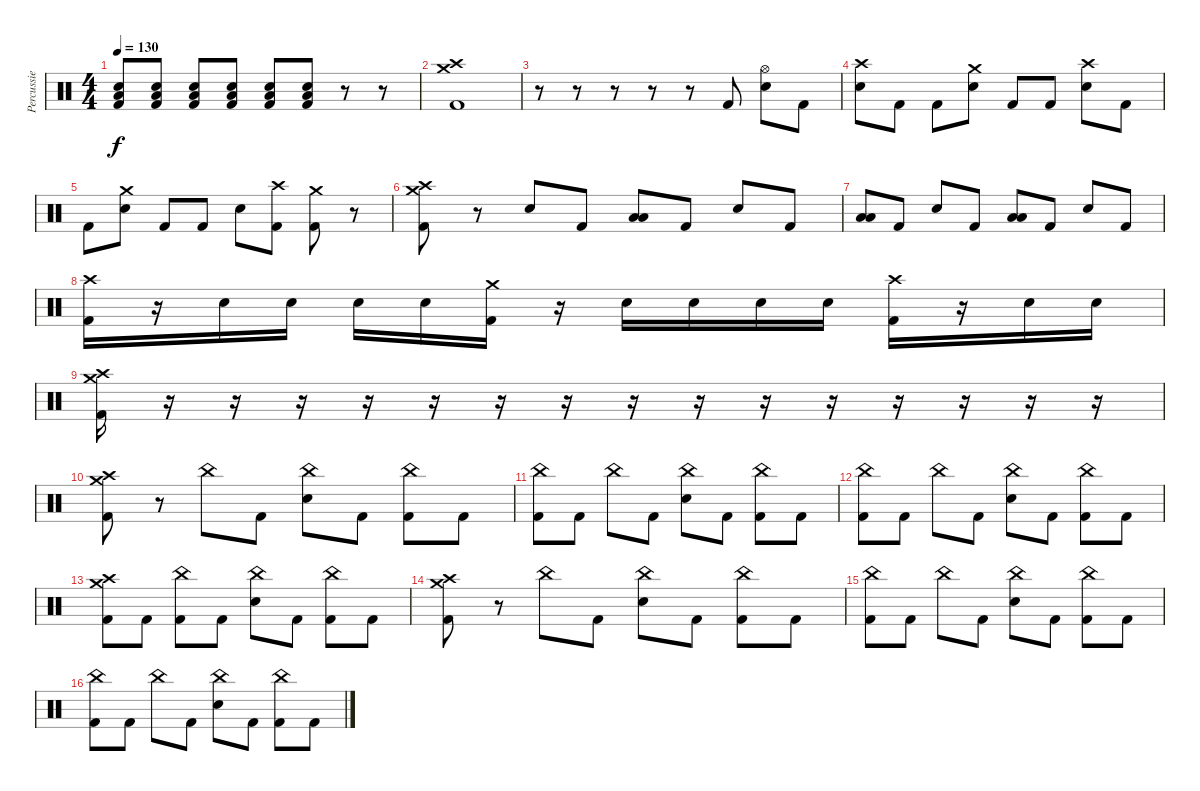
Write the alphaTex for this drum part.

\track ("Percussie" "Percussie") {instrument percussion}
\staff {score}
\articulation defaults
\ts (4 4)
\tempo 130
\clef neutral
\ks c
("Electric Snare (hit)" "Low Floor Tom (hit)" "Kick (hit) 2").8{dy f} ("Electric Snare (hit)" "Low Floor Tom (hit)" "Kick (hit) 2").8 ("Electric Snare (hit)" "Low Floor Tom (hit)" "Kick (hit) 2").8 ("Electric Snare (hit)" "Low Floor Tom (hit)" "Kick (hit) 2").8 ("Electric Snare (hit)" "Low Floor Tom (hit)" "Kick (hit) 2").8 ("Electric Snare (hit)" "Low Floor Tom (hit)" "Kick (hit) 2").8 r.8 r.8 |
("Crash medium (hit)" "Crash high (hit)" "Kick (hit) 2").1 |
r.8 r.8 r.8 r.8 r.8 "Kick (hit) 2".8 ("Hi-Hat (open)" "Electric Snare (hit)").8 "Kick (hit) 2".8 |
("Crash high (hit)" "Electric Snare (hit)").8 "Kick (hit) 2".8 "Kick (hit) 2".8 ("Crash medium (hit)" "Electric Snare (hit)").8 "Kick (hit) 2".8 "Kick (hit) 2".8 ("Crash high (hit)" "Electric Snare (hit)").8 "Kick (hit) 2".8 |
"Kick (hit) 2".8 ("Crash medium (hit)" "Electric Snare (hit)").8 "Kick (hit) 2".8 "Kick (hit) 2".8 "Electric Snare (hit)".8 ("Crash high (hit)" "Kick (hit) 2").8 ("Crash medium (hit)" "Kick (hit) 2").8 r.8 |
("Crash medium (hit)" "Crash high (hit)" "Kick (hit) 2").8 r.8 "Electric Snare (hit)".8 "Kick (hit) 2".8 ("Low Tom (hit)" "Low Floor Tom (hit)").8 "Kick (hit) 2".8 "Electric Snare (hit)".8 "Kick (hit) 2".8 |
("Low Tom (hit)" "Low Floor Tom (hit)").8 "Kick (hit) 2".8 "Electric Snare (hit)".8 "Kick (hit) 2".8 ("Low Tom (hit)" "Low Floor Tom (hit)").8 "Kick (hit) 2".8 "Electric Snare (hit)".8 "Kick (hit) 2".8 |
("Crash high (hit)" "Kick (hit) 2").16 r.16 "Electric Snare (hit)".16 "Electric Snare (hit)".16 "Electric Snare (hit)".16 "Electric Snare (hit)".16 ("Crash medium (hit)" "Kick (hit) 2").16 r.16 "Electric Snare (hit)".16 "Electric Snare (hit)".16 "Electric Snare (hit)".16 "Electric Snare (hit)".16 ("Crash high (hit)" "Kick (hit) 2").16 r.16 "Electric Snare (hit)".16 "Electric Snare (hit)".16 |
("Crash medium (hit)" "Crash high (hit)" "Kick (hit) 2").16 r.16{volume 0} r.16 r.16 r.16 r.16 r.16 r.16 r.16 r.16 r.16 r.16 r.16 r.16 r.16 r.16 |
("Crash medium (hit)" "Crash high (hit)" "Kick (hit) 2").8{volume 13} r.8 "China (hit)".8 "Kick (hit) 2".8 ("China (hit)" "Electric Snare (hit)").8 "Kick (hit) 2".8 ("China (hit)" "Kick (hit) 2").8 "Kick (hit) 2".8 |
("China (hit)" "Kick (hit) 2").8 "Kick (hit) 2".8 "China (hit)".8 "Kick (hit) 2".8 ("China (hit)" "Electric Snare (hit)").8 "Kick (hit) 2".8 ("China (hit)" "Kick (hit) 2").8 "Kick (hit) 2".8 |
("China (hit)" "Kick (hit) 2").8 "Kick (hit) 2".8 "China (hit)".8 "Kick (hit) 2".8 ("China (hit)" "Electric Snare (hit)").8 "Kick (hit) 2".8 ("China (hit)" "Kick (hit) 2").8 "Kick (hit) 2".8 |
("Crash medium (hit)" "Crash high (hit)" "Kick (hit) 2").8 "Kick (hit) 2".8 ("China (hit)" "Kick (hit) 2").8 "Kick (hit) 2".8 ("China (hit)" "Electric Snare (hit)").8 "Kick (hit) 2".8 ("China (hit)" "Kick (hit) 2").8 "Kick (hit) 2".8 |
("Crash medium (hit)" "Crash high (hit)" "Kick (hit) 2").8{volume 13} r.8 "China (hit)".8 "Kick (hit) 2".8 ("China (hit)" "Electric Snare (hit)").8 "Kick (hit) 2".8 ("China (hit)" "Kick (hit) 2").8 "Kick (hit) 2".8 |
("China (hit)" "Kick (hit) 2").8 "Kick (hit) 2".8 "China (hit)".8 "Kick (hit) 2".8 ("China (hit)" "Electric Snare (hit)").8 "Kick (hit) 2".8 ("China (hit)" "Kick (hit) 2").8 "Kick (hit) 2".8 |
("China (hit)" "Kick (hit) 2").8 "Kick (hit) 2".8 "China (hit)".8 "Kick (hit) 2".8 ("China (hit)" "Electric Snare (hit)").8 "Kick (hit) 2".8 ("China (hit)" "Kick (hit) 2").8 "Kick (hit) 2".8
